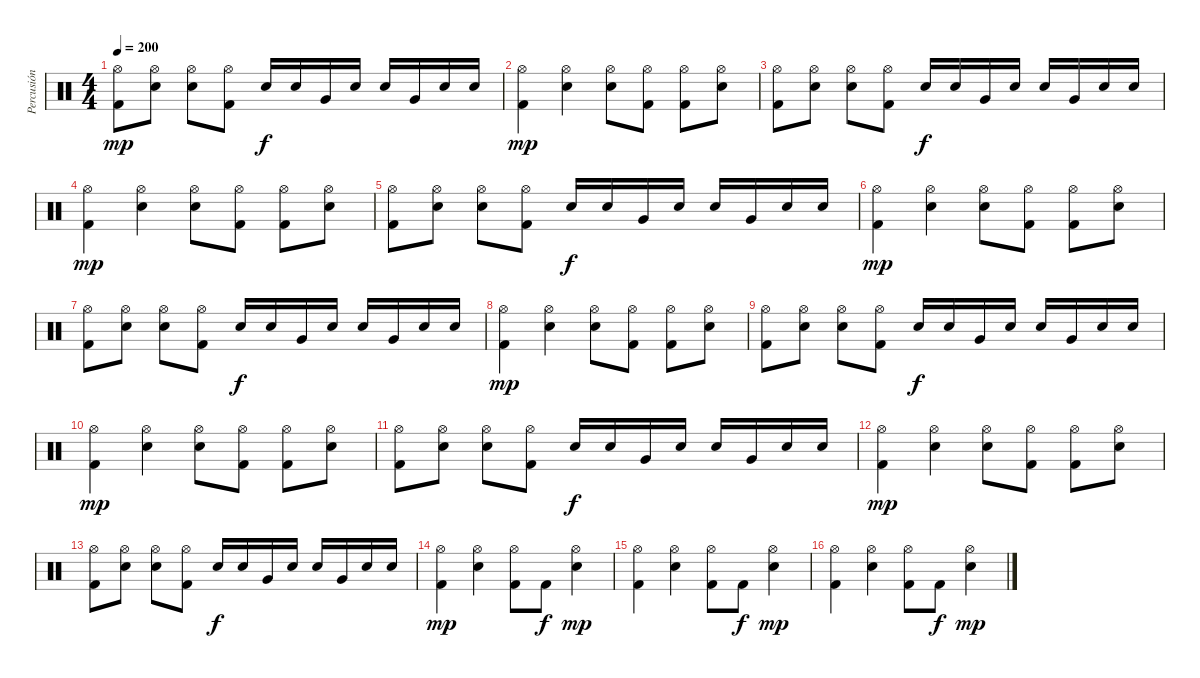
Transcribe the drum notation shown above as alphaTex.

\track ("Percusión" "Percusión") {instrument percussion}
\staff {score}
\articulation defaults
\ts (4 4)
\tempo 200
\clef neutral
\ks c
("Hi-Hat (open)" "Kick (hit) 2").8{dy mp} ("Hi-Hat (open)" "Electric Snare (hit)").8 ("Hi-Hat (open)" "Electric Snare (hit)").8 ("Hi-Hat (open)" "Kick (hit) 2").8 "Electric Snare (hit)".16{dy f} "Electric Snare (hit)".16 "Very Low Tom (hit)".16 "Electric Snare (hit)".16 "Electric Snare (hit)".16 "Very Low Tom (hit)".16 "Electric Snare (hit)".16 "Electric Snare (hit)".16 |
("Hi-Hat (open)" "Kick (hit) 2").4{dy mp} ("Hi-Hat (open)" "Electric Snare (hit)").4 ("Hi-Hat (open)" "Electric Snare (hit)").8 ("Hi-Hat (open)" "Kick (hit) 2").8 ("Hi-Hat (open)" "Kick (hit) 2").8 ("Hi-Hat (open)" "Electric Snare (hit)").8 |
("Hi-Hat (open)" "Kick (hit) 2").8 ("Hi-Hat (open)" "Electric Snare (hit)").8 ("Hi-Hat (open)" "Electric Snare (hit)").8 ("Hi-Hat (open)" "Kick (hit) 2").8 "Electric Snare (hit)".16{dy f} "Electric Snare (hit)".16 "Very Low Tom (hit)".16 "Electric Snare (hit)".16 "Electric Snare (hit)".16 "Very Low Tom (hit)".16 "Electric Snare (hit)".16 "Electric Snare (hit)".16 |
("Hi-Hat (open)" "Kick (hit) 2").4{dy mp} ("Hi-Hat (open)" "Electric Snare (hit)").4 ("Hi-Hat (open)" "Electric Snare (hit)").8 ("Hi-Hat (open)" "Kick (hit) 2").8 ("Hi-Hat (open)" "Kick (hit) 2").8 ("Hi-Hat (open)" "Electric Snare (hit)").8 |
("Hi-Hat (open)" "Kick (hit) 2").8 ("Hi-Hat (open)" "Electric Snare (hit)").8 ("Hi-Hat (open)" "Electric Snare (hit)").8 ("Hi-Hat (open)" "Kick (hit) 2").8 "Electric Snare (hit)".16{dy f} "Electric Snare (hit)".16 "Very Low Tom (hit)".16 "Electric Snare (hit)".16 "Electric Snare (hit)".16 "Very Low Tom (hit)".16 "Electric Snare (hit)".16 "Electric Snare (hit)".16 |
("Hi-Hat (open)" "Kick (hit) 2").4{dy mp} ("Hi-Hat (open)" "Electric Snare (hit)").4 ("Hi-Hat (open)" "Electric Snare (hit)").8 ("Hi-Hat (open)" "Kick (hit) 2").8 ("Hi-Hat (open)" "Kick (hit) 2").8 ("Hi-Hat (open)" "Electric Snare (hit)").8 |
("Hi-Hat (open)" "Kick (hit) 2").8 ("Hi-Hat (open)" "Electric Snare (hit)").8 ("Hi-Hat (open)" "Electric Snare (hit)").8 ("Hi-Hat (open)" "Kick (hit) 2").8 "Electric Snare (hit)".16{dy f} "Electric Snare (hit)".16 "Very Low Tom (hit)".16 "Electric Snare (hit)".16 "Electric Snare (hit)".16 "Very Low Tom (hit)".16 "Electric Snare (hit)".16 "Electric Snare (hit)".16 |
("Hi-Hat (open)" "Kick (hit) 2").4{dy mp} ("Hi-Hat (open)" "Electric Snare (hit)").4 ("Hi-Hat (open)" "Electric Snare (hit)").8 ("Hi-Hat (open)" "Kick (hit) 2").8 ("Hi-Hat (open)" "Kick (hit) 2").8 ("Hi-Hat (open)" "Electric Snare (hit)").8 |
("Hi-Hat (open)" "Kick (hit) 2").8 ("Hi-Hat (open)" "Electric Snare (hit)").8 ("Hi-Hat (open)" "Electric Snare (hit)").8 ("Hi-Hat (open)" "Kick (hit) 2").8 "Electric Snare (hit)".16{dy f} "Electric Snare (hit)".16 "Very Low Tom (hit)".16 "Electric Snare (hit)".16 "Electric Snare (hit)".16 "Very Low Tom (hit)".16 "Electric Snare (hit)".16 "Electric Snare (hit)".16 |
("Hi-Hat (open)" "Kick (hit) 2").4{dy mp} ("Hi-Hat (open)" "Electric Snare (hit)").4 ("Hi-Hat (open)" "Electric Snare (hit)").8 ("Hi-Hat (open)" "Kick (hit) 2").8 ("Hi-Hat (open)" "Kick (hit) 2").8 ("Hi-Hat (open)" "Electric Snare (hit)").8 |
("Hi-Hat (open)" "Kick (hit) 2").8 ("Hi-Hat (open)" "Electric Snare (hit)").8 ("Hi-Hat (open)" "Electric Snare (hit)").8 ("Hi-Hat (open)" "Kick (hit) 2").8 "Electric Snare (hit)".16{dy f} "Electric Snare (hit)".16 "Very Low Tom (hit)".16 "Electric Snare (hit)".16 "Electric Snare (hit)".16 "Very Low Tom (hit)".16 "Electric Snare (hit)".16 "Electric Snare (hit)".16 |
("Hi-Hat (open)" "Kick (hit) 2").4{dy mp} ("Hi-Hat (open)" "Electric Snare (hit)").4 ("Hi-Hat (open)" "Electric Snare (hit)").8 ("Hi-Hat (open)" "Kick (hit) 2").8 ("Hi-Hat (open)" "Kick (hit) 2").8 ("Hi-Hat (open)" "Electric Snare (hit)").8 |
("Hi-Hat (open)" "Kick (hit) 2").8 ("Hi-Hat (open)" "Electric Snare (hit)").8 ("Hi-Hat (open)" "Electric Snare (hit)").8 ("Hi-Hat (open)" "Kick (hit) 2").8 "Electric Snare (hit)".16{dy f} "Electric Snare (hit)".16 "Very Low Tom (hit)".16 "Electric Snare (hit)".16 "Electric Snare (hit)".16 "Very Low Tom (hit)".16 "Electric Snare (hit)".16 "Electric Snare (hit)".16 |
("Hi-Hat (open)" "Kick (hit) 2").4{dy mp} ("Hi-Hat (open)" "Electric Snare (hit)").4 ("Hi-Hat (open)" "Kick (hit) 2").8 "Kick (hit) 2".8{dy f} ("Hi-Hat (open)" "Electric Snare (hit)").4{dy mp} |
("Hi-Hat (open)" "Kick (hit) 2").4 ("Hi-Hat (open)" "Electric Snare (hit)").4 ("Hi-Hat (open)" "Kick (hit) 2").8 "Kick (hit) 2".8{dy f} ("Hi-Hat (open)" "Electric Snare (hit)").4{dy mp} |
("Hi-Hat (open)" "Kick (hit) 2").4 ("Hi-Hat (open)" "Electric Snare (hit)").4 ("Hi-Hat (open)" "Kick (hit) 2").8 "Kick (hit) 2".8{dy f} ("Hi-Hat (open)" "Electric Snare (hit)").4{dy mp}
